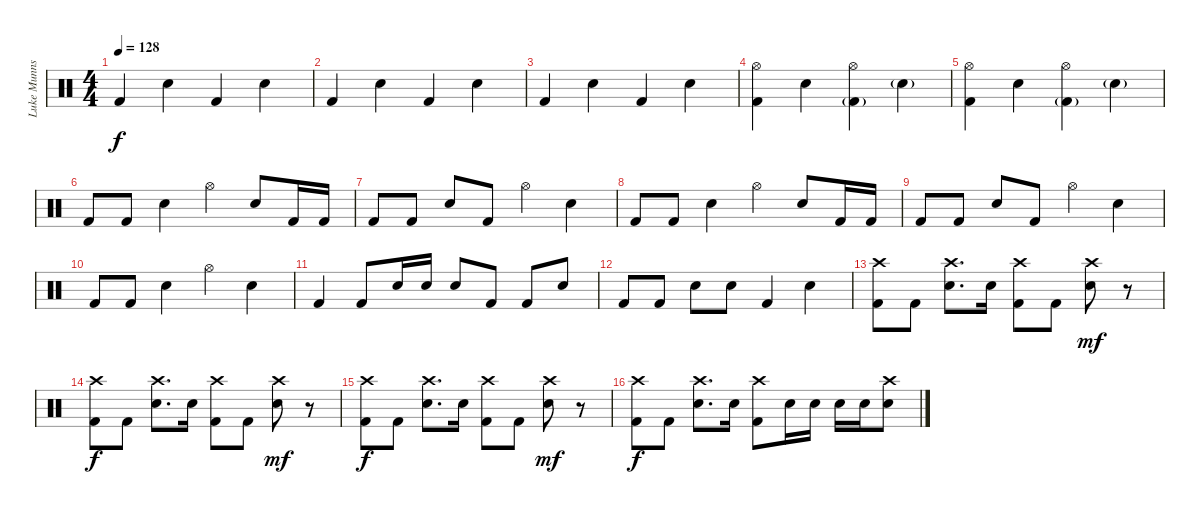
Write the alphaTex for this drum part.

\track ("Luke Munns" "Luke Munns") {instrument percussion}
\staff {score}
\articulation defaults
\ts (4 4)
\tempo 128
\clef neutral
\ks c "Kick (hit) 2".4{dy f} "Electric Snare (hit)".4 "Kick (hit) 2".4 "Electric Snare (hit)".4
|
"Kick (hit) 2".4 "Electric Snare (hit)".4 "Kick (hit) 2".4 "Electric Snare (hit)".4 |
"Kick (hit) 2".4 "Electric Snare (hit)".4 "Kick (hit) 2".4 "Electric Snare (hit)".4 |
("Kick (hit) 2" "Hi-Hat (open)").4 "Electric Snare (hit)".4 ("Kick (hit) 2"{g} "Hi-Hat (open)").4 "Electric Snare (hit)"{g}.4 |
("Kick (hit) 2" "Hi-Hat (open)").4 "Electric Snare (hit)".4 ("Kick (hit) 2"{g} "Hi-Hat (open)").4 "Electric Snare (hit)"{g}.4 |
"Kick (hit) 2".8 "Kick (hit) 2".8 "Electric Snare (hit)".4 "Hi-Hat (open)".4 "Electric Snare (hit)".8 "Kick (hit) 2".16 "Kick (hit) 2".16 |
"Kick (hit) 2".8 "Kick (hit) 2".8 "Electric Snare (hit)".8 "Kick (hit) 2".8 "Hi-Hat (open)".4 "Electric Snare (hit)".4 |
"Kick (hit) 2".8 "Kick (hit) 2".8 "Electric Snare (hit)".4 "Hi-Hat (open)".4 "Electric Snare (hit)".8 "Kick (hit) 2".16 "Kick (hit) 2".16 |
"Kick (hit) 2".8 "Kick (hit) 2".8 "Electric Snare (hit)".8 "Kick (hit) 2".8 "Hi-Hat (open)".4 "Electric Snare (hit)".4 |
"Kick (hit) 2".8 "Kick (hit) 2".8 "Electric Snare (hit)".4 "Hi-Hat (open)".4 "Electric Snare (hit)".4 |
"Kick (hit) 2".4 "Kick (hit) 2".8 "Electric Snare (hit)".16 "Electric Snare (hit)".16 "Electric Snare (hit)".8 "Kick (hit) 2".8 "Kick (hit) 2".8 "Electric Snare (hit)".8 |
"Kick (hit) 2".8 "Kick (hit) 2".8 "Electric Snare (hit)".8 "Electric Snare (hit)".8 "Kick (hit) 2".4 "Electric Snare (hit)".4 |
("Kick (hit) 2" "Crash high (hit)").8 "Kick (hit) 2".8 ("Electric Snare (hit)" "Crash high (hit)").8{d} "Electric Snare (hit)".16 ("Kick (hit) 2" "Crash high (hit)").8 "Kick (hit) 2".8 ("Electric Snare (hit)" "Crash high (hit)").8{dy mf} r.8 |
("Kick (hit) 2" "Crash high (hit)").8{dy f} "Kick (hit) 2".8 ("Electric Snare (hit)" "Crash high (hit)").8{d} "Electric Snare (hit)".16 ("Kick (hit) 2" "Crash high (hit)").8 "Kick (hit) 2".8 ("Electric Snare (hit)" "Crash high (hit)").8{dy mf} r.8 |
("Kick (hit) 2" "Crash high (hit)").8{dy f} "Kick (hit) 2".8 ("Electric Snare (hit)" "Crash high (hit)").8{d} "Electric Snare (hit)".16 ("Kick (hit) 2" "Crash high (hit)").8 "Kick (hit) 2".8 ("Electric Snare (hit)" "Crash high (hit)").8{dy mf} r.8 |
("Kick (hit) 2" "Crash high (hit)").8{dy f} "Kick (hit) 2".8 ("Electric Snare (hit)" "Crash high (hit)").8{d} "Electric Snare (hit)".16 ("Kick (hit) 2" "Crash high (hit)").8 "Electric Snare (hit)".16 "Electric Snare (hit)".16 "Electric Snare (hit)".16 "Electric Snare (hit)".16 ("Electric Snare (hit)" "Crash high (hit)").8
